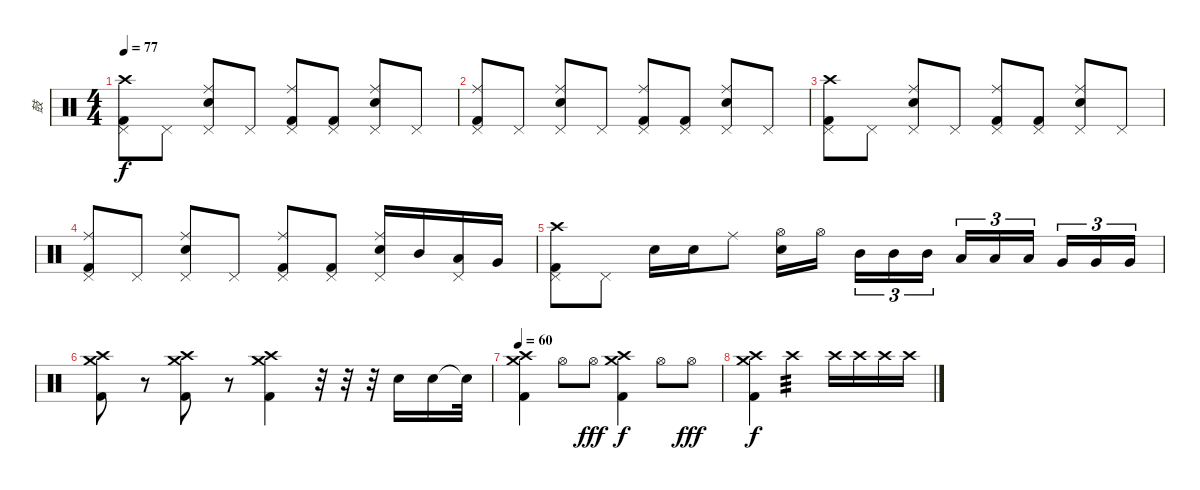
\track ("鼓" "鼓") {instrument percussion}
\staff {score}
\articulation defaults
\ts (4 4)
\tempo 77
\clef neutral
\ks c
("Crash high (hit)" "Pedal Hi-Hat (hit)" "Kick (hit) 2").8{dy f} "Pedal Hi-Hat (hit)".8 ("Ride (middle)" "Pedal Hi-Hat (hit)" "Electric Snare (hit)").8 "Pedal Hi-Hat (hit)".8 ("Ride (middle)" "Pedal Hi-Hat (hit)" "Kick (hit) 2").8 ("Pedal Hi-Hat (hit)" "Kick (hit) 2").8 ("Ride (middle)" "Pedal Hi-Hat (hit)" "Electric Snare (hit)").8 "Pedal Hi-Hat (hit)".8 |
("Ride (middle)" "Pedal Hi-Hat (hit)" "Kick (hit) 2").8 "Pedal Hi-Hat (hit)".8 ("Ride (middle)" "Pedal Hi-Hat (hit)" "Electric Snare (hit)").8 "Pedal Hi-Hat (hit)".8 ("Ride (middle)" "Pedal Hi-Hat (hit)" "Kick (hit) 2").8 ("Pedal Hi-Hat (hit)" "Kick (hit) 2").8 ("Ride (middle)" "Pedal Hi-Hat (hit)" "Electric Snare (hit)").8 "Pedal Hi-Hat (hit)".8 |
("Crash high (hit)" "Pedal Hi-Hat (hit)" "Kick (hit) 2").8 "Pedal Hi-Hat (hit)".8 ("Ride (middle)" "Pedal Hi-Hat (hit)" "Electric Snare (hit)").8 "Pedal Hi-Hat (hit)".8 ("Ride (middle)" "Pedal Hi-Hat (hit)" "Kick (hit) 2").8 ("Pedal Hi-Hat (hit)" "Kick (hit) 2").8 ("Ride (middle)" "Pedal Hi-Hat (hit)" "Electric Snare (hit)").8 "Pedal Hi-Hat (hit)".8 |
("Ride (middle)" "Pedal Hi-Hat (hit)" "Kick (hit) 2").8 "Pedal Hi-Hat (hit)".8 ("Ride (middle)" "Pedal Hi-Hat (hit)" "Electric Snare (hit)").8 "Pedal Hi-Hat (hit)".8 ("Ride (middle)" "Pedal Hi-Hat (hit)" "Kick (hit) 2").8 ("Pedal Hi-Hat (hit)" "Kick (hit) 2").8 ("Ride (middle)" "Pedal Hi-Hat (hit)" "Electric Snare (hit)").16 "Mid Tom (hit)".16 ("Pedal Hi-Hat (hit)" "Low Tom (hit)").16 "Very Low Tom (hit)".16 |
("Crash high (hit)" "Pedal Hi-Hat (hit)" "Kick (hit) 2").8 "Pedal Hi-Hat (hit)".8 "Electric Snare (hit)".16 "Electric Snare (hit)".16 "Ride (middle)".8 ("Electric Snare (hit)" "Hi-Hat (open)").16 "Hi-Hat (open)".16{beam splitsecondary} "Mid Tom (hit)".16{tu (3 2)} "Mid Tom (hit)".16{tu (3 2)} "Mid Tom (hit)".16{tu (3 2)} "Low Tom (hit)".16{tu (3 2)} "Low Tom (hit)".16{tu (3 2)} "Low Tom (hit)".16{tu (3 2) beam splitsecondary} "Very Low Tom (hit)".16{tu (3 2)} "Very Low Tom (hit)".16{tu (3 2)} "Very Low Tom (hit)".16{tu (3 2)} |
("Crash high (hit)" "Crash medium (hit)" "Kick (hit) 2").8 r.8 ("Crash high (hit)" "Crash medium (hit)" "Kick (hit) 2").8 r.8 ("Crash high (hit)" "Crash medium (hit)" "Kick (hit) 2").4 r.32 r.32 r.32 "Electric Snare (hit)".16 "Electric Snare (hit)".16 "Snare (hit)"{t}.32 |
\tempo 60
("Crash high (hit)" "Crash medium (hit)" "Kick (hit) 2").4 "Hi-Hat (open)".8 "Hi-Hat (open)".8{dy fff} ("Crash high (hit)" "Crash medium (hit)" "Kick (hit) 2").4{dy f} "Hi-Hat (open)".8 "Hi-Hat (open)".8{dy fff} |
("Crash high (hit)" "Crash medium (hit)" "Kick (hit) 2").4{dy f} "Crash high (hit)".2{tp 3} "Crash high (hit)".16 "Crash high (hit)".16 "Crash high (hit)".16 "Crash high (hit)".16
